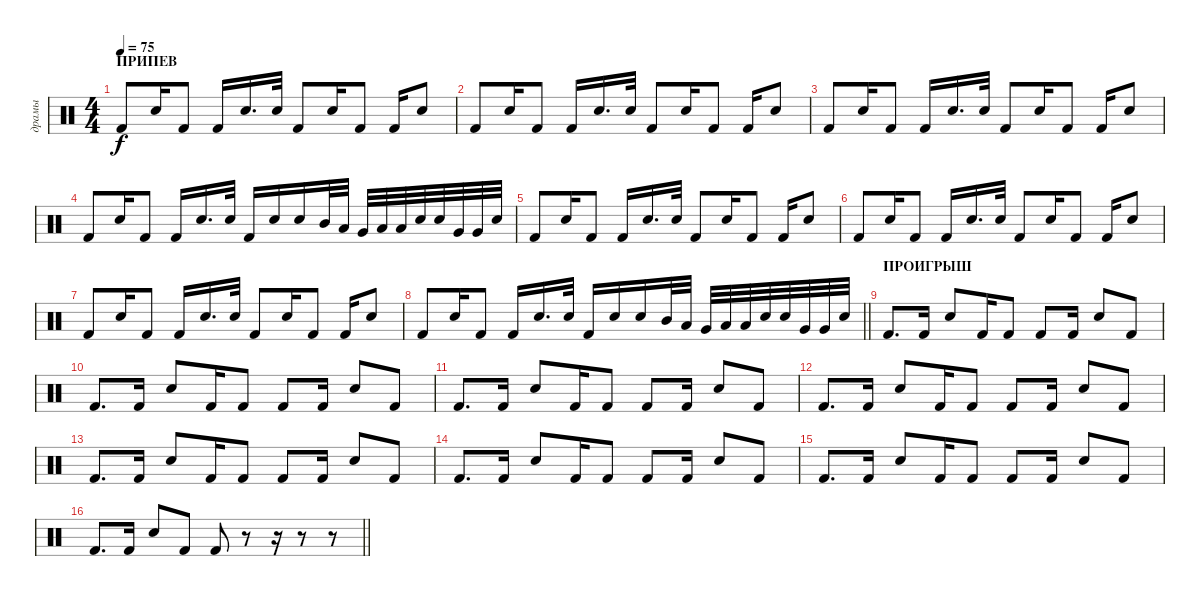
\track ("драмы" "драмы") {instrument percussion}
\staff {score}
\articulation defaults
\ts (4 4)
\section ("" "ПРИПЕВ")
\tempo 75
\clef neutral
\ks c "Kick (hit) 2".8{dy f} "Electric Snare (hit)".16 "Kick (hit) 2".8 "Kick (hit) 2".16 "Electric Snare (hit)".16{d} "Electric Snare (hit)".32 "Kick (hit) 2".8 "Electric Snare (hit)".16 "Kick (hit) 2".8 "Kick (hit) 2".16 "Electric Snare (hit)".8
|
"Kick (hit) 2".8 "Electric Snare (hit)".16 "Kick (hit) 2".8 "Kick (hit) 2".16 "Electric Snare (hit)".16{d} "Electric Snare (hit)".32 "Kick (hit) 2".8 "Electric Snare (hit)".16 "Kick (hit) 2".8 "Kick (hit) 2".16 "Electric Snare (hit)".8 |
"Kick (hit) 2".8 "Electric Snare (hit)".16 "Kick (hit) 2".8 "Kick (hit) 2".16 "Electric Snare (hit)".16{d} "Electric Snare (hit)".32 "Kick (hit) 2".8 "Electric Snare (hit)".16 "Kick (hit) 2".8 "Kick (hit) 2".16 "Electric Snare (hit)".8 |
"Kick (hit) 2".8 "Electric Snare (hit)".16 "Kick (hit) 2".8 "Kick (hit) 2".16 "Electric Snare (hit)".16{d} "Electric Snare (hit)".32 "Kick (hit) 2".16 "Electric Snare (hit)".16 "Electric Snare (hit)".16 "Mid Tom (hit)".32 "Low Tom (hit)".32 "Very Low Tom (hit)".32 "Low Floor Tom (hit)".32 "Low Floor Tom (hit)".32 "Electric Snare (hit)".32 "Electric Snare (hit)".32 "Very Low Tom (hit)".32 "Very Low Tom (hit)".32 "Electric Snare (hit)".32 |
"Kick (hit) 2".8 "Electric Snare (hit)".16 "Kick (hit) 2".8 "Kick (hit) 2".16 "Electric Snare (hit)".16{d} "Electric Snare (hit)".32 "Kick (hit) 2".8 "Electric Snare (hit)".16 "Kick (hit) 2".8 "Kick (hit) 2".16 "Electric Snare (hit)".8 |
"Kick (hit) 2".8 "Electric Snare (hit)".16 "Kick (hit) 2".8 "Kick (hit) 2".16 "Electric Snare (hit)".16{d} "Electric Snare (hit)".32 "Kick (hit) 2".8 "Electric Snare (hit)".16 "Kick (hit) 2".8 "Kick (hit) 2".16 "Electric Snare (hit)".8 |
"Kick (hit) 2".8 "Electric Snare (hit)".16 "Kick (hit) 2".8 "Kick (hit) 2".16 "Electric Snare (hit)".16{d} "Electric Snare (hit)".32 "Kick (hit) 2".8 "Electric Snare (hit)".16 "Kick (hit) 2".8 "Kick (hit) 2".16 "Electric Snare (hit)".8 |
\barLineRight lightlight "Kick (hit) 2".8 "Electric Snare (hit)".16 "Kick (hit) 2".8 "Kick (hit) 2".16 "Electric Snare (hit)".16{d} "Electric Snare (hit)".32 "Kick (hit) 2".16 "Electric Snare (hit)".16 "Electric Snare (hit)".16 "Mid Tom (hit)".32 "Low Tom (hit)".32 "Very Low Tom (hit)".32 "Low Floor Tom (hit)".32 "Low Floor Tom (hit)".32 "Electric Snare (hit)".32 "Electric Snare (hit)".32 "Very Low Tom (hit)".32 "Very Low Tom (hit)".32 "Electric Snare (hit)".32
|
\section ("" "ПРОИГРЫШ")
"Kick (hit) 2".8{d} "Kick (hit) 2".16 "Electric Snare (hit)".8 "Kick (hit) 2".16 "Kick (hit) 2".8 "Kick (hit) 2".8 "Kick (hit) 2".16 "Electric Snare (hit)".8 "Kick (hit) 2".8 |
"Kick (hit) 2".8{d} "Kick (hit) 2".16 "Electric Snare (hit)".8 "Kick (hit) 2".16 "Kick (hit) 2".8 "Kick (hit) 2".8 "Kick (hit) 2".16 "Electric Snare (hit)".8 "Kick (hit) 2".8 |
"Kick (hit) 2".8{d} "Kick (hit) 2".16 "Electric Snare (hit)".8 "Kick (hit) 2".16 "Kick (hit) 2".8 "Kick (hit) 2".8 "Kick (hit) 2".16 "Electric Snare (hit)".8 "Kick (hit) 2".8 |
"Kick (hit) 2".8{d} "Kick (hit) 2".16 "Electric Snare (hit)".8 "Kick (hit) 2".16 "Kick (hit) 2".8 "Kick (hit) 2".8 "Kick (hit) 2".16 "Electric Snare (hit)".8 "Kick (hit) 2".8 |
"Kick (hit) 2".8{d} "Kick (hit) 2".16 "Electric Snare (hit)".8 "Kick (hit) 2".16 "Kick (hit) 2".8 "Kick (hit) 2".8 "Kick (hit) 2".16 "Electric Snare (hit)".8 "Kick (hit) 2".8 |
"Kick (hit) 2".8{d} "Kick (hit) 2".16 "Electric Snare (hit)".8 "Kick (hit) 2".16 "Kick (hit) 2".8 "Kick (hit) 2".8 "Kick (hit) 2".16 "Electric Snare (hit)".8 "Kick (hit) 2".8 |
"Kick (hit) 2".8{d} "Kick (hit) 2".16 "Electric Snare (hit)".8 "Kick (hit) 2".16 "Kick (hit) 2".8 "Kick (hit) 2".8 "Kick (hit) 2".16 "Electric Snare (hit)".8 "Kick (hit) 2".8 |
\barLineRight lightlight "Kick (hit) 2".8{d} "Kick (hit) 2".16 "Electric Snare (hit)".8 "Kick (hit) 2".8 "Kick (hit) 2".8
r.8 r.16 r.8 r.8
